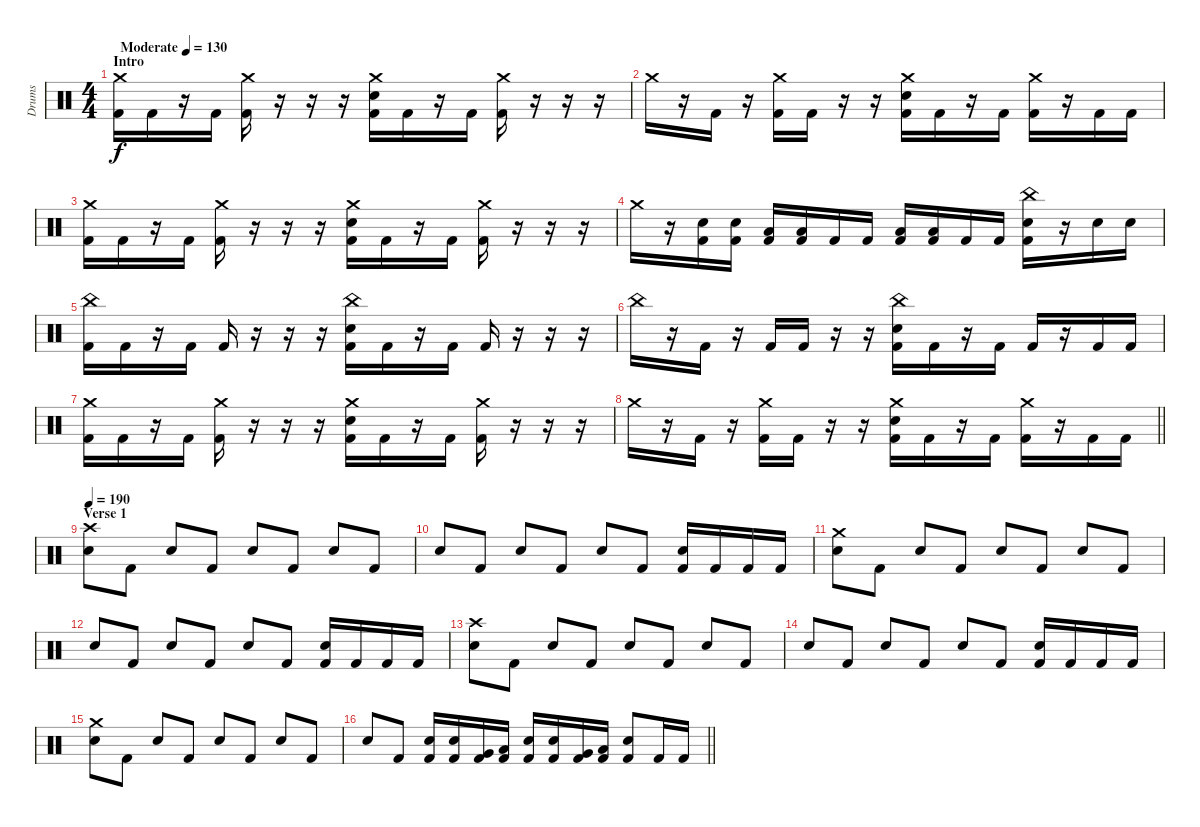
\track ("Drums" "Drums") {instrument percussion}
\staff {score}
\articulation defaults
\ts (4 4)
\section ("" "Intro")
\tempo (130 "Moderate")
\clef neutral
\ks c
("Crash medium (hit)" "Kick (hit) 2").16{dy f} "Kick (hit) 2".16 r.16 "Kick (hit) 2".16 ("Crash medium (hit)" "Kick (hit) 2").16 r.16 r.16 r.16 ("Crash medium (hit)" "Electric Snare (hit)" "Kick (hit) 2").16 "Kick (hit) 2".16 r.16 "Kick (hit) 2".16 ("Crash medium (hit)" "Kick (hit) 2").16 r.16 r.16 r.16 |
"Crash medium (hit)".16 r.16 "Kick (hit) 2".16 r.16 ("Crash medium (hit)" "Kick (hit) 2").16 "Kick (hit) 2".16 r.16 r.16 ("Crash medium (hit)" "Electric Snare (hit)" "Kick (hit) 2").16 "Kick (hit) 2".16 r.16 "Kick (hit) 2".16 ("Crash medium (hit)" "Kick (hit) 2").16 r.16 "Kick (hit) 2".16 "Kick (hit) 2".16 |
("Crash medium (hit)" "Kick (hit) 2").16 "Kick (hit) 2".16 r.16 "Kick (hit) 2".16 ("Crash medium (hit)" "Kick (hit) 2").16 r.16 r.16 r.16 ("Crash medium (hit)" "Electric Snare (hit)" "Kick (hit) 2").16 "Kick (hit) 2".16 r.16 "Kick (hit) 2".16 ("Crash medium (hit)" "Kick (hit) 2").16 r.16 r.16 r.16 |
"Crash medium (hit)".16 r.16 ("Electric Snare (hit)" "Kick (hit) 2").16 ("Electric Snare (hit)" "Kick (hit) 2").16 ("Low Tom (hit)" "Kick (hit) 2").16 ("Low Tom (hit)" "Kick (hit) 2").16 "Kick (hit) 2".16 "Kick (hit) 2".16 ("Low Floor Tom (hit)" "Kick (hit) 2").16 ("Low Floor Tom (hit)" "Kick (hit) 2").16 "Kick (hit) 2".16 "Kick (hit) 2".16 ("China (hit)" "Electric Snare (hit)" "Kick (hit) 2").16 r.16 "Electric Snare (hit)".16 "Electric Snare (hit)".16 |
("China (hit)" "Kick (hit) 2").16 "Kick (hit) 2".16 r.16 "Kick (hit) 2".16 "Kick (hit) 2".16 r.16 r.16 r.16 ("China (hit)" "Electric Snare (hit)" "Kick (hit) 2").16 "Kick (hit) 2".16 r.16 "Kick (hit) 2".16 "Kick (hit) 2".16 r.16 r.16 r.16 |
"China (hit)".16 r.16 "Kick (hit) 2".16 r.16 "Kick (hit) 2".16 "Kick (hit) 2".16 r.16 r.16 ("China (hit)" "Electric Snare (hit)" "Kick (hit) 2").16 "Kick (hit) 2".16 r.16 "Kick (hit) 2".16 "Kick (hit) 2".16 r.16 "Kick (hit) 2".16 "Kick (hit) 2".16 |
("Crash medium (hit)" "Kick (hit) 2").16 "Kick (hit) 2".16 r.16 "Kick (hit) 2".16 ("Crash medium (hit)" "Kick (hit) 2").16 r.16 r.16 r.16 ("Crash medium (hit)" "Electric Snare (hit)" "Kick (hit) 2").16 "Kick (hit) 2".16 r.16 "Kick (hit) 2".16 ("Crash medium (hit)" "Kick (hit) 2").16 r.16 r.16 r.16 |
\barLineRight lightlight "Crash medium (hit)".16
r.16 "Kick (hit) 2".16 r.16 ("Crash medium (hit)" "Kick (hit) 2").16 "Kick (hit) 2".16 r.16 r.16 ("Crash medium (hit)" "Electric Snare (hit)" "Kick (hit) 2").16 "Kick (hit) 2".16 r.16 "Kick (hit) 2".16 ("Crash medium (hit)" "Kick (hit) 2").16 r.16 "Kick (hit) 2".16 "Kick (hit) 2".16 |
\section ("" "Verse 1")
\tempo 190
("Crash high (hit)" "Electric Snare (hit)").8 "Kick (hit) 2".8 "Electric Snare (hit)".8 "Kick (hit) 2".8 "Electric Snare (hit)".8 "Kick (hit) 2".8 "Electric Snare (hit)".8 "Kick (hit) 2".8 |
"Electric Snare (hit)".8 "Kick (hit) 2".8 "Electric Snare (hit)".8 "Kick (hit) 2".8 "Electric Snare (hit)".8 "Kick (hit) 2".8 ("Electric Snare (hit)" "Kick (hit) 2").16 "Kick (hit) 2".16 "Kick (hit) 2".16 "Kick (hit) 2".16 |
("Crash medium (hit)" "Electric Snare (hit)").8 "Kick (hit) 2".8 "Electric Snare (hit)".8 "Kick (hit) 2".8 "Electric Snare (hit)".8 "Kick (hit) 2".8 "Electric Snare (hit)".8 "Kick (hit) 2".8 |
"Electric Snare (hit)".8 "Kick (hit) 2".8 "Electric Snare (hit)".8 "Kick (hit) 2".8 "Electric Snare (hit)".8 "Kick (hit) 2".8 ("Electric Snare (hit)" "Kick (hit) 2").16 "Kick (hit) 2".16 "Kick (hit) 2".16 "Kick (hit) 2".16 |
("Crash high (hit)" "Electric Snare (hit)").8 "Kick (hit) 2".8 "Electric Snare (hit)".8 "Kick (hit) 2".8 "Electric Snare (hit)".8 "Kick (hit) 2".8 "Electric Snare (hit)".8 "Kick (hit) 2".8 |
"Electric Snare (hit)".8 "Kick (hit) 2".8 "Electric Snare (hit)".8 "Kick (hit) 2".8 "Electric Snare (hit)".8 "Kick (hit) 2".8 ("Electric Snare (hit)" "Kick (hit) 2").16 "Kick (hit) 2".16 "Kick (hit) 2".16 "Kick (hit) 2".16 |
("Crash medium (hit)" "Electric Snare (hit)").8 "Kick (hit) 2".8 "Electric Snare (hit)".8 "Kick (hit) 2".8 "Electric Snare (hit)".8 "Kick (hit) 2".8 "Electric Snare (hit)".8 "Kick (hit) 2".8 |
\barLineRight lightlight "Electric Snare (hit)".8 "Kick (hit) 2".8
("Electric Snare (hit)" "Kick (hit) 2").16 ("Electric Snare (hit)" "Kick (hit) 2").16 ("Very Low Tom (hit)" "Kick (hit) 2").16 ("Low Floor Tom (hit)" "Kick (hit) 2").16 ("Electric Snare (hit)" "Kick (hit) 2").16 ("Electric Snare (hit)" "Kick (hit) 2").16 ("Very Low Tom (hit)" "Kick (hit) 2").16 ("Low Floor Tom (hit)" "Kick (hit) 2").16 ("Electric Snare (hit)" "Kick (hit) 2").8 "Kick (hit) 2".16 "Kick (hit) 2".16
